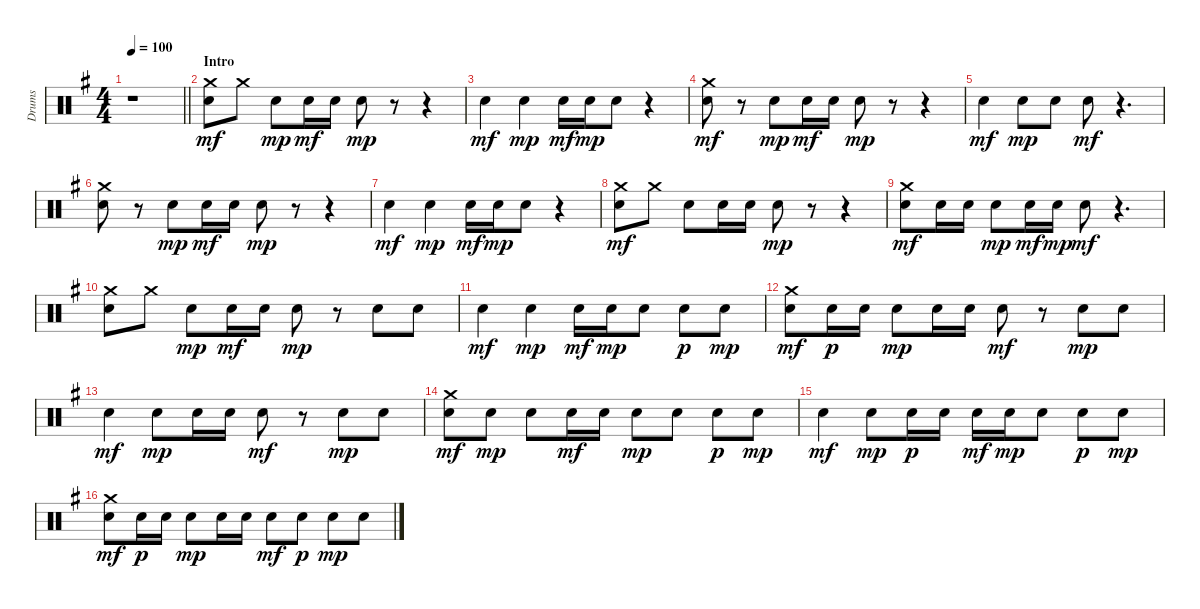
\track ("Drums" "Drums") {instrument percussion}
\staff {score}
\articulation defaults
\ts (4 4)
\tempo 100
\clef neutral
\barLineRight lightlight
\ks eminor
r.1{dy mf} |
\section ("" "Intro")
("Crash medium (hit)" "Snare (hit) 2").8 "Crash medium (hit)".8 "Snare (hit) 2".8{dy mp} "Snare (hit) 2".16{dy mf} "Snare (hit) 2".16 "Snare (hit) 2".8{dy mp} r.8 r.4 |
"Snare (hit) 2".4{dy mf} "Snare (hit) 2".4{dy mp} "Snare (hit) 2".16{dy mf} "Snare (hit) 2".16{dy mp} "Snare (hit) 2".8 r.4 |
("Crash medium (hit)" "Snare (hit) 2").8{dy mf} r.8 "Snare (hit) 2".8{dy mp} "Snare (hit) 2".16{dy mf} "Snare (hit) 2".16 "Snare (hit) 2".8{dy mp} r.8 r.4 |
"Snare (hit) 2".4{dy mf} "Snare (hit) 2".8{dy mp} "Snare (hit) 2".8 "Snare (hit) 2".8{dy mf} r.4{d} |
("Crash medium (hit)" "Snare (hit) 2").8 r.8 "Snare (hit) 2".8{dy mp} "Snare (hit) 2".16{dy mf} "Snare (hit) 2".16 "Snare (hit) 2".8{dy mp} r.8 r.4 |
"Snare (hit) 2".4{dy mf} "Snare (hit) 2".4{dy mp} "Snare (hit) 2".16{dy mf} "Snare (hit) 2".16{dy mp} "Snare (hit) 2".8 r.4 |
("Crash medium (hit)" "Snare (hit) 2").8{dy mf} "Crash medium (hit)".8 "Snare (hit) 2".8 "Snare (hit) 2".16 "Snare (hit) 2".16 "Snare (hit) 2".8{dy mp} r.8 r.4 |
("Crash medium (hit)" "Snare (hit) 2").8{dy mf} "Snare (hit) 2".16 "Snare (hit) 2".16 "Snare (hit) 2".8{dy mp} "Snare (hit) 2".16{dy mf} "Snare (hit) 2".16{dy mp} "Snare (hit) 2".8{dy mf} r.4{d} |
("Crash medium (hit)" "Snare (hit) 2").8 "Crash medium (hit)".8 "Snare (hit) 2".8{dy mp} "Snare (hit) 2".16{dy mf} "Snare (hit) 2".16 "Snare (hit) 2".8{dy mp} r.8 "Snare (hit) 2".8 "Snare (hit) 2".8 |
"Snare (hit) 2".4{dy mf} "Snare (hit) 2".4{dy mp} "Snare (hit) 2".16{dy mf} "Snare (hit) 2".16{dy mp} "Snare (hit) 2".8 "Snare (hit) 2".8{dy p} "Snare (hit) 2".8{dy mp} |
("Crash medium (hit)" "Snare (hit) 2").8{dy mf} "Snare (hit) 2".16{dy p} "Snare (hit) 2".16 "Snare (hit) 2".8{dy mp} "Snare (hit) 2".16 "Snare (hit) 2".16 "Snare (hit) 2".8{dy mf} r.8 "Snare (hit) 2".8{dy mp} "Snare (hit) 2".8 |
"Snare (hit) 2".4{dy mf} "Snare (hit) 2".8{dy mp} "Snare (hit) 2".16 "Snare (hit) 2".16 "Snare (hit) 2".8{dy mf} r.8 "Snare (hit) 2".8{dy mp} "Snare (hit) 2".8 |
("Crash medium (hit)" "Snare (hit) 2").8{dy mf} "Snare (hit) 2".8{dy mp} "Snare (hit) 2".8 "Snare (hit) 2".16{dy mf} "Snare (hit) 2".16 "Snare (hit) 2".8{dy mp} "Snare (hit) 2".8 "Snare (hit) 2".8{dy p} "Snare (hit) 2".8{dy mp} |
"Snare (hit) 2".4{dy mf} "Snare (hit) 2".8{dy mp} "Snare (hit) 2".16{dy p} "Snare (hit) 2".16 "Snare (hit) 2".16{dy mf} "Snare (hit) 2".16{dy mp} "Snare (hit) 2".8 "Snare (hit) 2".8{dy p} "Snare (hit) 2".8{dy mp} |
("Crash medium (hit)" "Snare (hit) 2").8{dy mf} "Snare (hit) 2".16{dy p} "Snare (hit) 2".16 "Snare (hit) 2".8{dy mp} "Snare (hit) 2".16 "Snare (hit) 2".16 "Snare (hit) 2".8{dy mf} "Snare (hit) 2".8{dy p} "Snare (hit) 2".8{dy mp} "Snare (hit) 2".8
